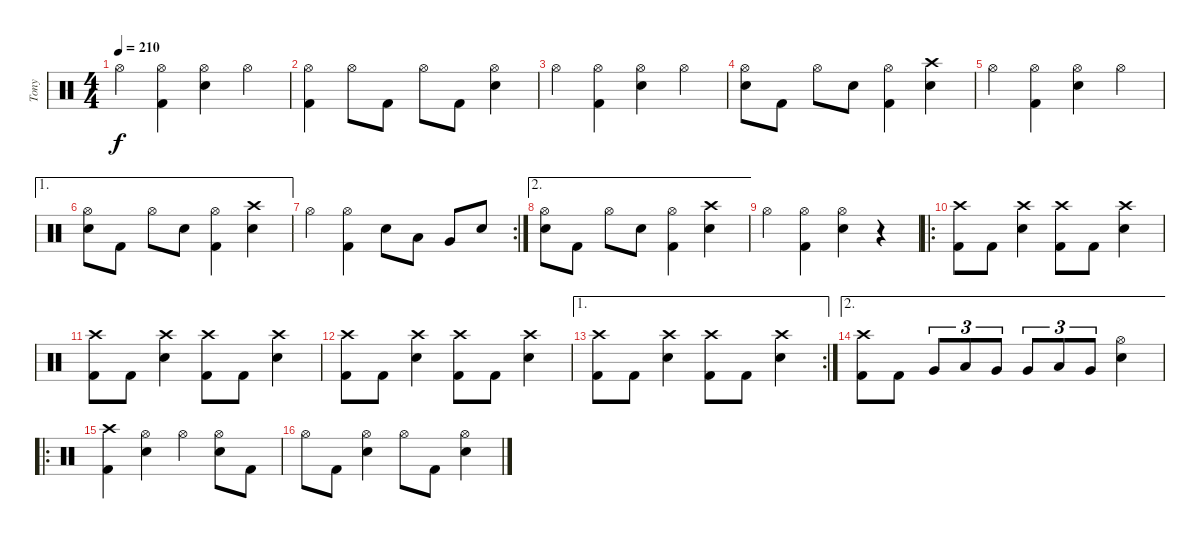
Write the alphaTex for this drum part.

\track ("Tony" "Tony") {instrument percussion}
\staff {score}
\articulation defaults
\ts (4 4)
\tempo 210
\clef neutral
\ks c "Hi-Hat (open)".4{dy f}
("Kick (hit) 2" "Hi-Hat (open)").4 ("Snare (hit) 2" "Hi-Hat (open)").4 "Hi-Hat (open)".4 |
("Kick (hit) 2" "Hi-Hat (open)").4 "Hi-Hat (open)".8 "Kick (hit) 2".8 "Hi-Hat (open)".8 "Kick (hit) 2".8 ("Snare (hit) 2" "Hi-Hat (open)").4 |
"Hi-Hat (open)".4 ("Kick (hit) 2" "Hi-Hat (open)").4 ("Snare (hit) 2" "Hi-Hat (open)").4 "Hi-Hat (open)".4 |
("Snare (hit) 2" "Hi-Hat (open)").8 "Kick (hit) 2".8 "Hi-Hat (open)".8 "Snare (hit) 2".8 ("Kick (hit) 2" "Hi-Hat (open)").4 ("Crash high (hit)" "Snare (hit) 2").4 |
"Hi-Hat (open)".4 ("Kick (hit) 2" "Hi-Hat (open)").4 ("Snare (hit) 2" "Hi-Hat (open)").4 "Hi-Hat (open)".4 |
\ae 1
("Snare (hit) 2" "Hi-Hat (open)").8 "Kick (hit) 2".8 "Hi-Hat (open)".8 "Snare (hit) 2".8 ("Kick (hit) 2" "Hi-Hat (open)").4 ("Crash high (hit)" "Snare (hit) 2").4 |
\rc 2 "Hi-Hat (open)".4
("Kick (hit) 2" "Hi-Hat (open)").4 "Snare (hit) 2".8 "Low Tom (hit)".8 "Very Low Tom (hit)".8 "Snare (hit) 2".8 |
\ae 2
("Snare (hit) 2" "Hi-Hat (open)").8 "Kick (hit) 2".8 "Hi-Hat (open)".8 "Snare (hit) 2".8 ("Kick (hit) 2" "Hi-Hat (open)").4 ("Crash high (hit)" "Snare (hit) 2").4 |
"Hi-Hat (open)".4 ("Kick (hit) 2" "Hi-Hat (open)").4 ("Snare (hit) 2" "Hi-Hat (open)").4 r.4 |
\ro
("Kick (hit) 2" "Crash high (hit)").8 "Kick (hit) 2".8 ("Crash high (hit)" "Snare (hit) 2").4 ("Kick (hit) 2" "Crash high (hit)").8 "Kick (hit) 2".8 ("Crash high (hit)" "Snare (hit) 2").4 |
("Kick (hit) 2" "Crash high (hit)").8 "Kick (hit) 2".8 ("Crash high (hit)" "Snare (hit) 2").4 ("Kick (hit) 2" "Crash high (hit)").8 "Kick (hit) 2".8 ("Crash high (hit)" "Snare (hit) 2").4 |
("Kick (hit) 2" "Crash high (hit)").8 "Kick (hit) 2".8 ("Crash high (hit)" "Snare (hit) 2").4 ("Kick (hit) 2" "Crash high (hit)").8 "Kick (hit) 2".8 ("Crash high (hit)" "Snare (hit) 2").4 |
\ae 1
\rc 2
("Kick (hit) 2" "Crash high (hit)").8 "Kick (hit) 2".8 ("Crash high (hit)" "Snare (hit) 2").4 ("Kick (hit) 2" "Crash high (hit)").8 "Kick (hit) 2".8 ("Crash high (hit)" "Snare (hit) 2").4 |
\ae 2
("Kick (hit) 2" "Crash high (hit)").8 "Kick (hit) 2".8 "Very Low Tom (hit)".8{tu (3 2)} "Low Tom (hit)".8{tu (3 2)} "Very Low Tom (hit)".8{tu (3 2)} "Very Low Tom (hit)".8{tu (3 2)} "Low Tom (hit)".8{tu (3 2)} "Very Low Tom (hit)".8{tu (3 2)} ("Snare (hit) 2" "Hi-Hat (open)").4 |
\ro
("Kick (hit) 2" "Crash high (hit)").4 ("Snare (hit) 2" "Hi-Hat (open)").4 "Hi-Hat (open)".4 ("Snare (hit) 2" "Hi-Hat (open)").8 "Kick (hit) 2".8 |
"Hi-Hat (open)".8 "Kick (hit) 2".8 ("Snare (hit) 2" "Hi-Hat (open)").4 "Hi-Hat (open)".8 "Kick (hit) 2".8 ("Snare (hit) 2" "Hi-Hat (open)").4
